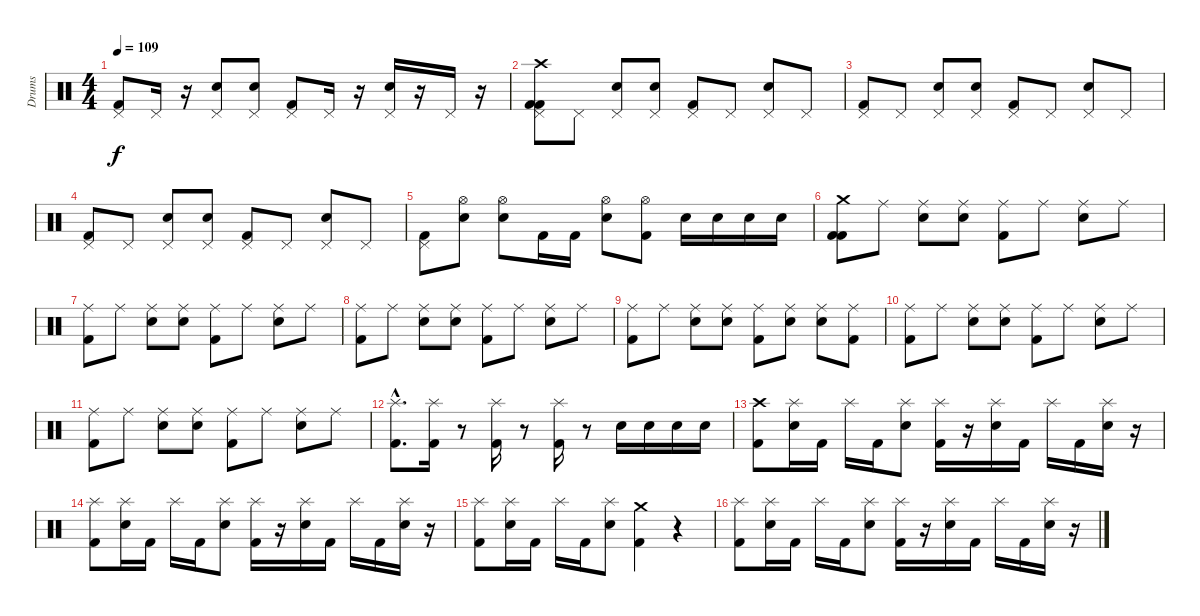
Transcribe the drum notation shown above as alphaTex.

\track ("Drums" "Drums") {instrument percussion}
\staff {score}
\articulation defaults
\ts (4 4)
\tempo 109
\clef neutral
\ks c
("Pedal Hi-Hat (hit)" "Kick (hit) 2").8{dy f} "Pedal Hi-Hat (hit)".16 r.16 ("Pedal Hi-Hat (hit)" "Electric Snare (hit)").8 ("Pedal Hi-Hat (hit)" "Electric Snare (hit)").8 ("Pedal Hi-Hat (hit)" "Kick (hit) 2").8 "Pedal Hi-Hat (hit)".16 r.16 ("Pedal Hi-Hat (hit)" "Electric Snare (hit)").16 r.16 "Pedal Hi-Hat (hit)".16 r.16 |
("Pedal Hi-Hat (hit)" "Kick (hit) 2" "Crash high (hit)" "Kick (hit) 2").8 "Pedal Hi-Hat (hit)".8 ("Pedal Hi-Hat (hit)" "Electric Snare (hit)").8 ("Pedal Hi-Hat (hit)" "Electric Snare (hit)").8 ("Pedal Hi-Hat (hit)" "Kick (hit) 2").8 "Pedal Hi-Hat (hit)".8 ("Pedal Hi-Hat (hit)" "Electric Snare (hit)").8 "Pedal Hi-Hat (hit)".8 |
("Pedal Hi-Hat (hit)" "Kick (hit) 2").8 "Pedal Hi-Hat (hit)".8 ("Pedal Hi-Hat (hit)" "Electric Snare (hit)").8 ("Pedal Hi-Hat (hit)" "Electric Snare (hit)").8 ("Pedal Hi-Hat (hit)" "Kick (hit) 2").8 "Pedal Hi-Hat (hit)".8 ("Pedal Hi-Hat (hit)" "Electric Snare (hit)").8 "Pedal Hi-Hat (hit)".8 |
("Pedal Hi-Hat (hit)" "Kick (hit) 2").8 "Pedal Hi-Hat (hit)".8 ("Pedal Hi-Hat (hit)" "Electric Snare (hit)").8 ("Pedal Hi-Hat (hit)" "Electric Snare (hit)").8 ("Pedal Hi-Hat (hit)" "Kick (hit) 2").8 "Pedal Hi-Hat (hit)".8 ("Electric Snare (hit)" "Pedal Hi-Hat (hit)").8 "Pedal Hi-Hat (hit)".8 |
("Pedal Hi-Hat (hit)" "Kick (hit) 2").8 ("Hi-Hat (open)" "Electric Snare (hit)").8 ("Hi-Hat (open)" "Electric Snare (hit)").8 "Kick (hit) 2".16 "Kick (hit) 2".16 ("Hi-Hat (open)" "Electric Snare (hit)").8 ("Hi-Hat (open)" "Kick (hit) 2").8 "Electric Snare (hit)".16 "Electric Snare (hit)".16 "Electric Snare (hit)".16 "Electric Snare (hit)".16 |
("Crash medium (hit)" "Kick (hit) 2" "Kick (hit) 2").8 "Ride (middle)".8 ("Ride (middle)" "Electric Snare (hit)").8 ("Ride (middle)" "Electric Snare (hit)").8 ("Ride (middle)" "Kick (hit) 2").8 "Ride (middle)".8 ("Ride (middle)" "Electric Snare (hit)").8 "Ride (middle)".8 |
("Ride (middle)" "Kick (hit) 2").8 "Ride (middle)".8 ("Ride (middle)" "Electric Snare (hit)").8 ("Ride (middle)" "Electric Snare (hit)").8 ("Ride (middle)" "Kick (hit) 2").8 "Ride (middle)".8 ("Ride (middle)" "Electric Snare (hit)").8 "Ride (middle)".8 |
("Ride (middle)" "Kick (hit) 2").8 "Ride (middle)".8 ("Ride (middle)" "Electric Snare (hit)").8 ("Ride (middle)" "Electric Snare (hit)").8 ("Ride (middle)" "Kick (hit) 2").8 "Ride (middle)".8 ("Electric Snare (hit)" "Ride (middle)").8 "Ride (middle)".8 |
("Ride (middle)" "Kick (hit) 2").8 "Ride (middle)".8 ("Electric Snare (hit)" "Ride (middle)").8 ("Electric Snare (hit)" "Ride (middle)").8 ("Kick (hit) 2" "Ride (middle)").8 ("Electric Snare (hit)" "Ride (middle)").8 ("Electric Snare (hit)" "Ride (middle)").8 ("Kick (hit) 2" "Ride (middle)").8 |
("Ride (middle)" "Kick (hit) 2").8 "Ride (middle)".8 ("Ride (middle)" "Electric Snare (hit)").8 ("Ride (middle)" "Electric Snare (hit)").8 ("Ride (middle)" "Kick (hit) 2").8 "Ride (middle)".8 ("Electric Snare (hit)" "Ride (middle)").8 "Ride (middle)".8 |
("Ride (middle)" "Kick (hit) 2").8 "Ride (middle)".8 ("Electric Snare (hit)" "Ride (middle)").8 ("Electric Snare (hit)" "Ride (middle)").8 ("Kick (hit) 2" "Ride (middle)").8 "Ride (middle)".8 ("Electric Snare (hit)" "Ride (middle)").8 "Ride (middle)".8 |
("Splash (hit)" "Kick (hit) 2"{hac}).8{d} ("Splash (hit)" "Kick (hit) 2").16 r.8 ("Splash (hit)" "Kick (hit) 2").16 r.8 ("Splash (hit)" "Kick (hit) 2").16 r.8 "Electric Snare (hit)".16 "Electric Snare (hit)".16 "Electric Snare (hit)".16 "Electric Snare (hit)".16 |
("Crash high (hit)" "Kick (hit) 2").8 ("Splash (hit)" "Electric Snare (hit)").16 "Kick (hit) 2".16 "Splash (hit)".16 "Kick (hit) 2".16 ("Splash (hit)" "Electric Snare (hit)").8 ("Splash (hit)" "Kick (hit) 2").16 r.16 ("Splash (hit)" "Electric Snare (hit)").16 "Kick (hit) 2".16 "Splash (hit)".16 "Kick (hit) 2".16 ("Splash (hit)" "Electric Snare (hit)").16 r.16 |
("Splash (hit)" "Kick (hit) 2").8 ("Splash (hit)" "Electric Snare (hit)").16 "Kick (hit) 2".16 "Splash (hit)".16 "Kick (hit) 2".16 ("Splash (hit)" "Electric Snare (hit)").8 ("Splash (hit)" "Kick (hit) 2").16 r.16 ("Splash (hit)" "Electric Snare (hit)").16 "Kick (hit) 2".16 "Splash (hit)".16 "Kick (hit) 2".16 ("Splash (hit)" "Electric Snare (hit)").16 r.16 |
("Splash (hit)" "Kick (hit) 2").8 ("Splash (hit)" "Electric Snare (hit)").16 "Kick (hit) 2".16 "Splash (hit)".16 "Kick (hit) 2".16 ("Splash (hit)" "Electric Snare (hit)").8 ("Crash medium (hit)" "Kick (hit) 2").4 r.4 |
("Splash (hit)" "Kick (hit) 2").8 ("Splash (hit)" "Electric Snare (hit)").16 "Kick (hit) 2".16 "Splash (hit)".16 "Kick (hit) 2".16 ("Splash (hit)" "Electric Snare (hit)").8 ("Splash (hit)" "Kick (hit) 2").16 r.16 ("Splash (hit)" "Electric Snare (hit)").16 "Kick (hit) 2".16 "Splash (hit)".16 "Kick (hit) 2".16 ("Splash (hit)" "Electric Snare (hit)").16 r.16
